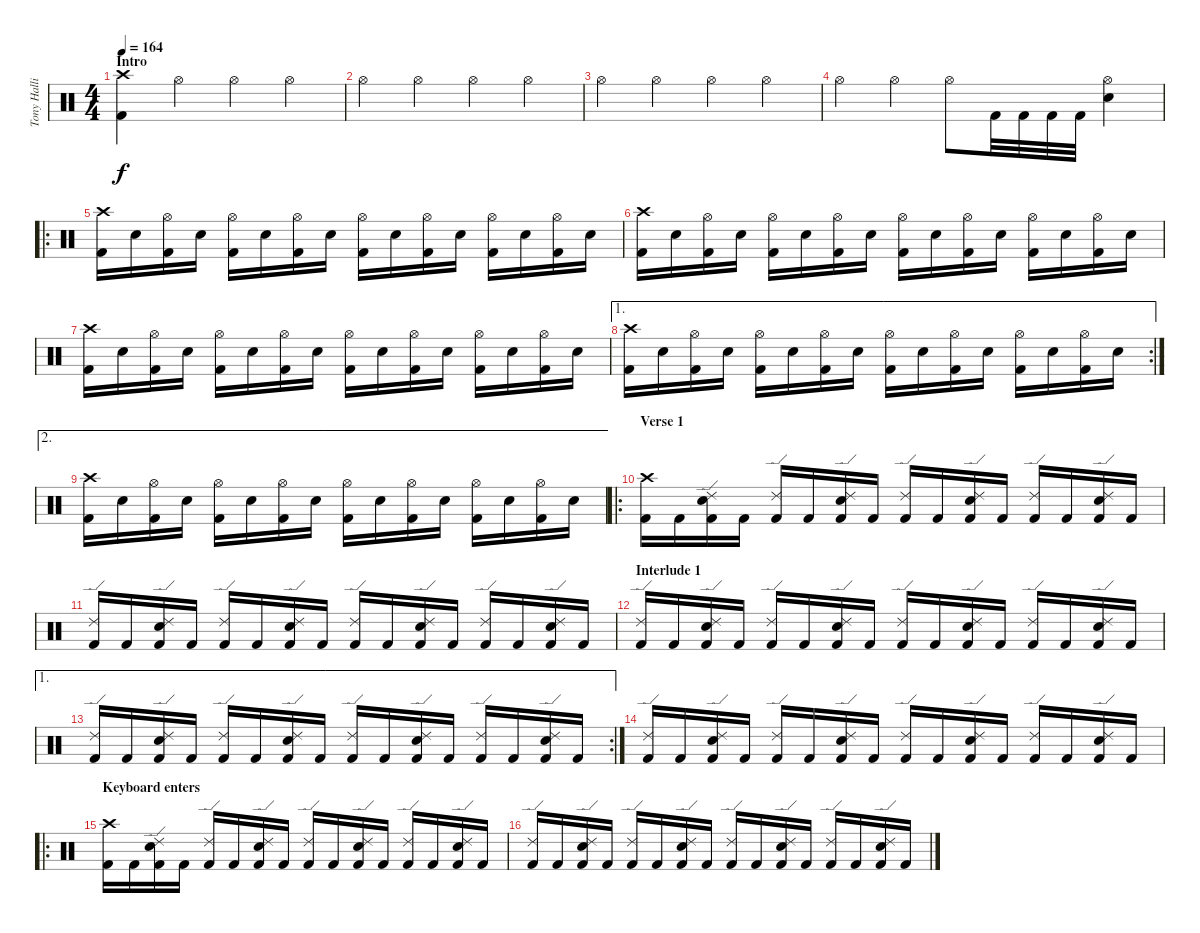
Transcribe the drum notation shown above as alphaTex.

\track ("Tony Hallio - Drums" "Tony Halli") {instrument percussion}
\staff {score}
\articulation defaults
\ts (4 4)
\section ("" "Intro")
\tempo 164
\clef neutral
\ks c
("Crash high (hit)" "Kick (hit) 2").4{dy f} "Hi-Hat (open)".4 "Hi-Hat (open)".4 "Hi-Hat (open)".4 |
"Hi-Hat (open)".4 "Hi-Hat (open)".4 "Hi-Hat (open)".4 "Hi-Hat (open)".4 |
"Hi-Hat (open)".4 "Hi-Hat (open)".4 "Hi-Hat (open)".4 "Hi-Hat (open)".4 |
"Hi-Hat (open)".4 "Hi-Hat (open)".4 "Hi-Hat (open)".8 "Kick (hit) 2".32 "Kick (hit) 2".32 "Kick (hit) 2".32 "Kick (hit) 2".32 ("Hi-Hat (open)" "Electric Snare (hit)").4 |
\ro
("Crash high (hit)" "Kick (hit) 2").16 "Electric Snare (hit)".16 ("Hi-Hat (open)" "Kick (hit) 2").16 "Electric Snare (hit)".16 ("Hi-Hat (open)" "Kick (hit) 2").16 "Electric Snare (hit)".16 ("Hi-Hat (open)" "Kick (hit) 2").16 "Electric Snare (hit)".16 ("Hi-Hat (open)" "Kick (hit) 2").16 "Electric Snare (hit)".16 ("Hi-Hat (open)" "Kick (hit) 2").16 "Electric Snare (hit)".16 ("Hi-Hat (open)" "Kick (hit) 2").16 "Electric Snare (hit)".16 ("Hi-Hat (open)" "Kick (hit) 2").16 "Electric Snare (hit)".16 |
("Crash high (hit)" "Kick (hit) 2").16 "Electric Snare (hit)".16 ("Hi-Hat (open)" "Kick (hit) 2").16 "Electric Snare (hit)".16 ("Hi-Hat (open)" "Kick (hit) 2").16 "Electric Snare (hit)".16 ("Hi-Hat (open)" "Kick (hit) 2").16 "Electric Snare (hit)".16 ("Hi-Hat (open)" "Kick (hit) 2").16 "Electric Snare (hit)".16 ("Hi-Hat (open)" "Kick (hit) 2").16 "Electric Snare (hit)".16 ("Hi-Hat (open)" "Kick (hit) 2").16 "Electric Snare (hit)".16 ("Hi-Hat (open)" "Kick (hit) 2").16 "Electric Snare (hit)".16 |
("Crash high (hit)" "Kick (hit) 2").16 "Electric Snare (hit)".16 ("Hi-Hat (open)" "Kick (hit) 2").16 "Electric Snare (hit)".16 ("Hi-Hat (open)" "Kick (hit) 2").16 "Electric Snare (hit)".16 ("Hi-Hat (open)" "Kick (hit) 2").16 "Electric Snare (hit)".16 ("Hi-Hat (open)" "Kick (hit) 2").16 "Electric Snare (hit)".16 ("Hi-Hat (open)" "Kick (hit) 2").16 "Electric Snare (hit)".16 ("Hi-Hat (open)" "Kick (hit) 2").16 "Electric Snare (hit)".16 ("Hi-Hat (open)" "Kick (hit) 2").16 "Electric Snare (hit)".16 |
\ae 1
\rc 2
("Crash high (hit)" "Kick (hit) 2").16 "Electric Snare (hit)".16 ("Hi-Hat (open)" "Kick (hit) 2").16 "Electric Snare (hit)".16 ("Hi-Hat (open)" "Kick (hit) 2").16 "Electric Snare (hit)".16 ("Hi-Hat (open)" "Kick (hit) 2").16 "Electric Snare (hit)".16 ("Hi-Hat (open)" "Kick (hit) 2").16 "Electric Snare (hit)".16 ("Hi-Hat (open)" "Kick (hit) 2").16 "Electric Snare (hit)".16 ("Hi-Hat (open)" "Kick (hit) 2").16 "Electric Snare (hit)".16 ("Hi-Hat (open)" "Kick (hit) 2").16 "Electric Snare (hit)".16 |
\ae 2
("Crash high (hit)" "Kick (hit) 2").16 "Electric Snare (hit)".16 ("Hi-Hat (open)" "Kick (hit) 2").16 "Electric Snare (hit)".16 ("Hi-Hat (open)" "Kick (hit) 2").16 "Electric Snare (hit)".16 ("Hi-Hat (open)" "Kick (hit) 2").16 "Electric Snare (hit)".16 ("Hi-Hat (open)" "Kick (hit) 2").16 "Electric Snare (hit)".16 ("Hi-Hat (open)" "Kick (hit) 2").16 "Electric Snare (hit)".16 ("Hi-Hat (open)" "Kick (hit) 2").16 "Electric Snare (hit)".16 ("Hi-Hat (open)" "Kick (hit) 2").16 "Electric Snare (hit)".16 |
\ro
\section ("" "Verse 1")
("Crash high (hit)" "Kick (hit) 2").16 "Kick (hit) 2".16 ("Ride (edge) 2" "Electric Snare (hit)" "Kick (hit) 2").16 "Kick (hit) 2".16 ("Ride (edge) 2" "Kick (hit) 2").16 "Kick (hit) 2".16 ("Ride (edge) 2" "Electric Snare (hit)" "Kick (hit) 2").16 "Kick (hit) 2".16 ("Ride (edge) 2" "Kick (hit) 2").16 "Kick (hit) 2".16 ("Ride (edge) 2" "Electric Snare (hit)" "Kick (hit) 2").16 "Kick (hit) 2".16 ("Ride (edge) 2" "Kick (hit) 2").16 "Kick (hit) 2".16 ("Ride (edge) 2" "Electric Snare (hit)" "Kick (hit) 2").16 "Kick (hit) 2".16 |
("Ride (edge) 2" "Kick (hit) 2").16 "Kick (hit) 2".16 ("Ride (edge) 2" "Electric Snare (hit)" "Kick (hit) 2").16 "Kick (hit) 2".16 ("Ride (edge) 2" "Kick (hit) 2").16 "Kick (hit) 2".16 ("Ride (edge) 2" "Electric Snare (hit)" "Kick (hit) 2").16 "Kick (hit) 2".16 ("Ride (edge) 2" "Kick (hit) 2").16 "Kick (hit) 2".16 ("Ride (edge) 2" "Electric Snare (hit)" "Kick (hit) 2").16 "Kick (hit) 2".16 ("Ride (edge) 2" "Kick (hit) 2").16 "Kick (hit) 2".16 ("Ride (edge) 2" "Electric Snare (hit)" "Kick (hit) 2").16 "Kick (hit) 2".16 |
\section ("" "Interlude 1")
("Ride (edge) 2" "Kick (hit) 2").16 "Kick (hit) 2".16 ("Ride (edge) 2" "Electric Snare (hit)" "Kick (hit) 2").16 "Kick (hit) 2".16 ("Ride (edge) 2" "Kick (hit) 2").16 "Kick (hit) 2".16 ("Ride (edge) 2" "Electric Snare (hit)" "Kick (hit) 2").16 "Kick (hit) 2".16 ("Ride (edge) 2" "Kick (hit) 2").16 "Kick (hit) 2".16 ("Ride (edge) 2" "Electric Snare (hit)" "Kick (hit) 2").16 "Kick (hit) 2".16 ("Ride (edge) 2" "Kick (hit) 2").16 "Kick (hit) 2".16 ("Ride (edge) 2" "Electric Snare (hit)" "Kick (hit) 2").16 "Kick (hit) 2".16 |
\ae 1
\rc 2
("Ride (edge) 2" "Kick (hit) 2").16 "Kick (hit) 2".16 ("Ride (edge) 2" "Electric Snare (hit)" "Kick (hit) 2").16 "Kick (hit) 2".16 ("Ride (edge) 2" "Kick (hit) 2").16 "Kick (hit) 2".16 ("Ride (edge) 2" "Electric Snare (hit)" "Kick (hit) 2").16 "Kick (hit) 2".16 ("Ride (edge) 2" "Kick (hit) 2").16 "Kick (hit) 2".16 ("Ride (edge) 2" "Electric Snare (hit)" "Kick (hit) 2").16 "Kick (hit) 2".16 ("Ride (edge) 2" "Kick (hit) 2").16 "Kick (hit) 2".16 ("Ride (edge) 2" "Electric Snare (hit)" "Kick (hit) 2").16 "Kick (hit) 2".16 |
("Ride (edge) 2" "Kick (hit) 2").16 "Kick (hit) 2".16 ("Ride (edge) 2" "Electric Snare (hit)" "Kick (hit) 2").16 "Kick (hit) 2".16 ("Ride (edge) 2" "Kick (hit) 2").16 "Kick (hit) 2".16 ("Ride (edge) 2" "Electric Snare (hit)" "Kick (hit) 2").16 "Kick (hit) 2".16 ("Ride (edge) 2" "Kick (hit) 2").16 "Kick (hit) 2".16 ("Ride (edge) 2" "Electric Snare (hit)" "Kick (hit) 2").16 "Kick (hit) 2".16 ("Ride (edge) 2" "Kick (hit) 2").16 "Kick (hit) 2".16 ("Ride (edge) 2" "Electric Snare (hit)" "Kick (hit) 2").16 "Kick (hit) 2".16 |
\ro
\section ("" "Keyboard enters")
("Crash high (hit)" "Kick (hit) 2").16 "Kick (hit) 2".16 ("Ride (edge) 2" "Electric Snare (hit)" "Kick (hit) 2").16 "Kick (hit) 2".16 ("Ride (edge) 2" "Kick (hit) 2").16 "Kick (hit) 2".16 ("Ride (edge) 2" "Electric Snare (hit)" "Kick (hit) 2").16 "Kick (hit) 2".16 ("Ride (edge) 2" "Kick (hit) 2").16 "Kick (hit) 2".16 ("Ride (edge) 2" "Electric Snare (hit)" "Kick (hit) 2").16 "Kick (hit) 2".16 ("Ride (edge) 2" "Kick (hit) 2").16 "Kick (hit) 2".16 ("Ride (edge) 2" "Electric Snare (hit)" "Kick (hit) 2").16 "Kick (hit) 2".16 |
("Ride (edge) 2" "Kick (hit) 2").16 "Kick (hit) 2".16 ("Ride (edge) 2" "Electric Snare (hit)" "Kick (hit) 2").16 "Kick (hit) 2".16 ("Ride (edge) 2" "Kick (hit) 2").16 "Kick (hit) 2".16 ("Ride (edge) 2" "Electric Snare (hit)" "Kick (hit) 2").16 "Kick (hit) 2".16 ("Ride (edge) 2" "Kick (hit) 2").16 "Kick (hit) 2".16 ("Ride (edge) 2" "Electric Snare (hit)" "Kick (hit) 2").16 "Kick (hit) 2".16 ("Ride (edge) 2" "Kick (hit) 2").16 "Kick (hit) 2".16 ("Ride (edge) 2" "Electric Snare (hit)" "Kick (hit) 2").16 "Kick (hit) 2".16
